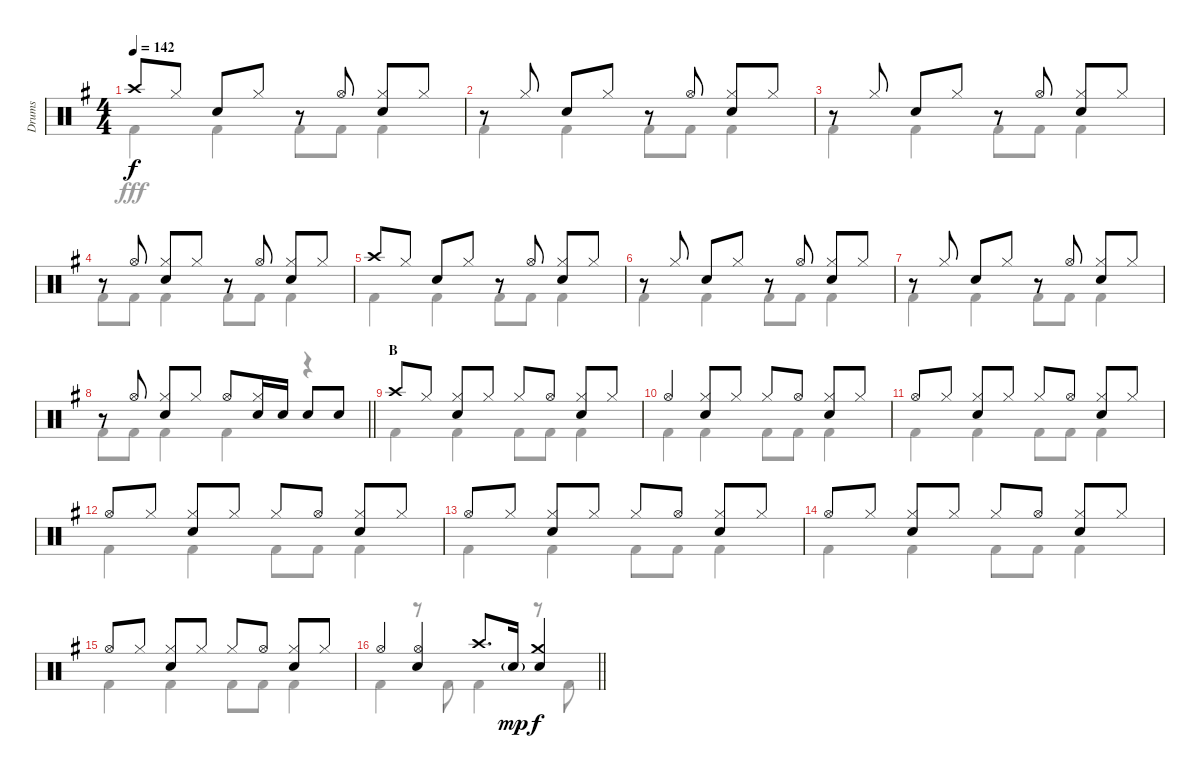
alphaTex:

\track ("Drums" "Drums") {instrument percussion}
\staff {score}
\articulation defaults
\voice
\ts (4 4)
\tempo 142
\clef neutral
\ks g "Crash high (hit)".8{dy f} "Hi-Hat (closed)".8 "Snare (hit) 2".8 "Hi-Hat (closed)".8
r.8 "Hi-Hat (open)".8 ("Hi-Hat (closed)" "Snare (hit) 2").8 "Hi-Hat (closed)".8 |
r.8 "Hi-Hat (closed)".8 "Snare (hit) 2".8 "Hi-Hat (closed)".8 r.8 "Hi-Hat (open)".8 ("Hi-Hat (closed)" "Snare (hit) 2").8 "Hi-Hat (closed)".8 |
r.8 "Hi-Hat (closed)".8 "Snare (hit) 2".8 "Hi-Hat (closed)".8 r.8 "Hi-Hat (open)".8 ("Hi-Hat (closed)" "Snare (hit) 2").8 "Hi-Hat (closed)".8 |
r.8 "Hi-Hat (open)".8 ("Hi-Hat (closed)" "Snare (hit) 2").8 "Hi-Hat (closed)".8 r.8 "Hi-Hat (open)".8 ("Hi-Hat (closed)" "Snare (hit) 2").8 "Hi-Hat (closed)".8 |
"Crash high (hit)".8 "Hi-Hat (closed)".8 "Snare (hit) 2".8 "Hi-Hat (closed)".8 r.8 "Hi-Hat (open)".8 ("Hi-Hat (closed)" "Snare (hit) 2").8 "Hi-Hat (closed)".8 |
r.8 "Hi-Hat (closed)".8 "Snare (hit) 2".8 "Hi-Hat (closed)".8 r.8 "Hi-Hat (open)".8 ("Hi-Hat (closed)" "Snare (hit) 2").8 "Hi-Hat (closed)".8 |
r.8 "Hi-Hat (closed)".8 "Snare (hit) 2".8 "Hi-Hat (closed)".8 r.8 "Hi-Hat (open)".8 ("Hi-Hat (closed)" "Snare (hit) 2").8 "Hi-Hat (closed)".8 |
\barLineRight lightlight
r.8 "Hi-Hat (open)".8 ("Hi-Hat (closed)" "Snare (hit) 2").8 "Hi-Hat (closed)".8 "Hi-Hat (open)".8 ("Hi-Hat (closed)" "Snare (hit) 2").16 "Snare (hit) 2".16 "Snare (hit) 2".8 "Snare (hit) 2".8 |
\section ("" "B")
"Crash high (hit)".8 "Hi-Hat (closed)".8 ("Hi-Hat (closed)" "Snare (hit) 2").8 "Hi-Hat (closed)".8 "Hi-Hat (closed)".8 "Hi-Hat (open)".8 ("Hi-Hat (closed)" "Snare (hit) 2").8 "Hi-Hat (closed)".8 |
"Hi-Hat (open)".4 ("Hi-Hat (closed)" "Snare (hit) 2").8 "Hi-Hat (closed)".8 "Hi-Hat (closed)".8 "Hi-Hat (open)".8 ("Hi-Hat (closed)" "Snare (hit) 2").8 "Hi-Hat (closed)".8 |
"Hi-Hat (open)".8 "Hi-Hat (closed)".8 ("Hi-Hat (closed)" "Snare (hit) 2").8 "Hi-Hat (closed)".8 "Hi-Hat (closed)".8 "Hi-Hat (open)".8 ("Hi-Hat (closed)" "Snare (hit) 2").8 "Hi-Hat (closed)".8 |
"Hi-Hat (open)".8 "Hi-Hat (closed)".8 ("Hi-Hat (closed)" "Snare (hit) 2").8 "Hi-Hat (closed)".8 "Hi-Hat (closed)".8 "Hi-Hat (open)".8 ("Hi-Hat (closed)" "Snare (hit) 2").8 "Hi-Hat (closed)".8 |
"Hi-Hat (open)".8 "Hi-Hat (closed)".8 ("Hi-Hat (closed)" "Snare (hit) 2").8 "Hi-Hat (closed)".8 "Hi-Hat (closed)".8 "Hi-Hat (open)".8 ("Hi-Hat (closed)" "Snare (hit) 2").8 "Hi-Hat (closed)".8 |
"Hi-Hat (open)".8 "Hi-Hat (closed)".8 ("Hi-Hat (closed)" "Snare (hit) 2").8 "Hi-Hat (closed)".8 "Hi-Hat (closed)".8 "Hi-Hat (open)".8 ("Hi-Hat (closed)" "Snare (hit) 2").8 "Hi-Hat (closed)".8 |
"Hi-Hat (open)".8 "Hi-Hat (closed)".8 ("Hi-Hat (closed)" "Snare (hit) 2").8 "Hi-Hat (closed)".8 "Hi-Hat (closed)".8 "Hi-Hat (open)".8 ("Hi-Hat (closed)" "Snare (hit) 2").8 "Hi-Hat (closed)".8 |
\barLineRight lightlight "Hi-Hat (open)".4
("Hi-Hat (open)" "Snare (hit) 2").4 "Crash high (hit)".8{d} "Snare (hit) 2"{g}.16{dy mp} ("Crash medium (hit)" "Snare (hit) 2").4{dy f}
\voice
\clef neutral
\ottava regular
\simile none
\ks g "Kick (hit) 2".4{dy fff} "Kick (hit) 2".4 "Kick (hit) 2".8 "Kick (hit) 2".8 "Kick (hit) 2".4
|
"Kick (hit) 2".4 "Kick (hit) 2".4 "Kick (hit) 2".8 "Kick (hit) 2".8 "Kick (hit) 2".4 |
"Kick (hit) 2".4 "Kick (hit) 2".4 "Kick (hit) 2".8 "Kick (hit) 2".8 "Kick (hit) 2".4 |
"Kick (hit) 2".8 "Kick (hit) 2".8 "Kick (hit) 2".4 "Kick (hit) 2".8 "Kick (hit) 2".8 "Kick (hit) 2".4 |
"Kick (hit) 2".4 "Kick (hit) 2".4 "Kick (hit) 2".8 "Kick (hit) 2".8 "Kick (hit) 2".4 |
"Kick (hit) 2".4 "Kick (hit) 2".4 "Kick (hit) 2".8 "Kick (hit) 2".8 "Kick (hit) 2".4 |
"Kick (hit) 2".4 "Kick (hit) 2".4 "Kick (hit) 2".8 "Kick (hit) 2".8 "Kick (hit) 2".4 |
\barLineRight lightlight "Kick (hit) 2".8 "Kick (hit) 2".8 "Kick (hit) 2".4 "Kick (hit) 2".4
r.4 |
"Kick (hit) 2".4 "Kick (hit) 2".4 "Kick (hit) 2".8 "Kick (hit) 2".8 "Kick (hit) 2".4 |
"Kick (hit) 2".4 "Kick (hit) 2".4 "Kick (hit) 2".8 "Kick (hit) 2".8 "Kick (hit) 2".4 |
"Kick (hit) 2".4 "Kick (hit) 2".4 "Kick (hit) 2".8 "Kick (hit) 2".8 "Kick (hit) 2".4 |
"Kick (hit) 2".4 "Kick (hit) 2".4 "Kick (hit) 2".8 "Kick (hit) 2".8 "Kick (hit) 2".4 |
"Kick (hit) 2".4 "Kick (hit) 2".4 "Kick (hit) 2".8 "Kick (hit) 2".8 "Kick (hit) 2".4 |
"Kick (hit) 2".4 "Kick (hit) 2".4 "Kick (hit) 2".8 "Kick (hit) 2".8 "Kick (hit) 2".4 |
"Kick (hit) 2".4 "Kick (hit) 2".4 "Kick (hit) 2".8 "Kick (hit) 2".8 "Kick (hit) 2".4 |
\barLineRight lightlight "Kick (hit) 2".4
r.8 "Kick (hit) 2".8 "Kick (hit) 2".4 r.8 "Kick (hit) 2".8
